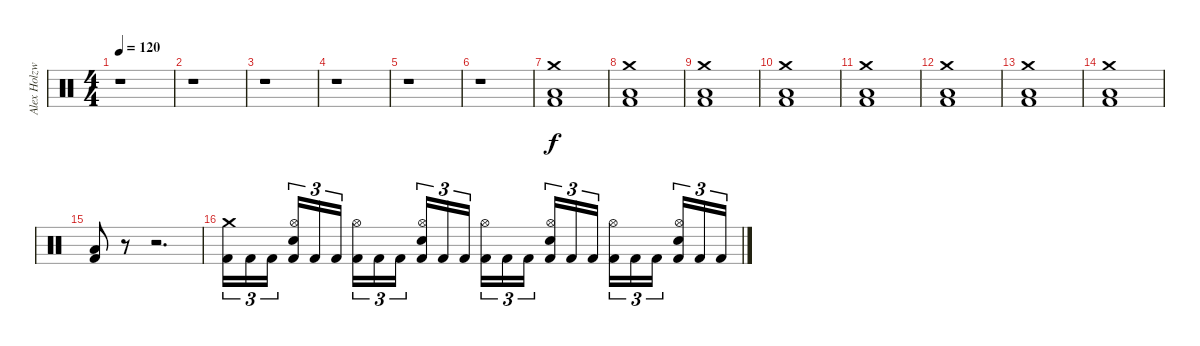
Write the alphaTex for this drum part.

\track ("Alex Holzwarth - Drums" "Alex Holzw") {instrument percussion}
\staff {score}
\articulation defaults
\ts (4 4)
\tempo 120
\clef neutral
\ks c
r.1{dy f} |
r.1 |
r.1 |
r.1 |
r.1 |
r.1 |
("Crash medium (hit)" "Low Floor Tom (hit)" "Kick (hit) 2").1 |
("Crash medium (hit)" "Low Floor Tom (hit)" "Kick (hit) 2").1 |
("Crash medium (hit)" "Low Floor Tom (hit)" "Kick (hit) 2").1 |
("Crash medium (hit)" "Low Floor Tom (hit)" "Kick (hit) 2").1 |
("Crash medium (hit)" "Low Floor Tom (hit)" "Kick (hit) 2").1 |
("Crash medium (hit)" "Low Floor Tom (hit)" "Kick (hit) 2").1 |
("Crash medium (hit)" "Low Floor Tom (hit)" "Kick (hit) 2").1 |
("Crash medium (hit)" "Low Floor Tom (hit)" "Kick (hit) 2").1 |
("Low Floor Tom (hit)" "Kick (hit) 2").8 r.8 r.2{d} |
("Crash medium (hit)" "Kick (hit) 2").16{tu (3 2)} "Kick (hit) 2".16{tu (3 2)} "Kick (hit) 2".16{tu (3 2)} ("Hi-Hat (open)" "Electric Snare (hit)" "Kick (hit) 2").16{tu (3 2)} "Kick (hit) 2".16{tu (3 2)} "Kick (hit) 2".16{tu (3 2)} ("Hi-Hat (open)" "Kick (hit) 2").16{tu (3 2)} "Kick (hit) 2".16{tu (3 2)} "Kick (hit) 2".16{tu (3 2)} ("Hi-Hat (open)" "Electric Snare (hit)" "Kick (hit) 2").16{tu (3 2)} "Kick (hit) 2".16{tu (3 2)} "Kick (hit) 2".16{tu (3 2)} ("Hi-Hat (open)" "Kick (hit) 2").16{tu (3 2)} "Kick (hit) 2".16{tu (3 2)} "Kick (hit) 2".16{tu (3 2)} ("Hi-Hat (open)" "Electric Snare (hit)" "Kick (hit) 2").16{tu (3 2)} "Kick (hit) 2".16{tu (3 2)} "Kick (hit) 2".16{tu (3 2)} ("Hi-Hat (open)" "Kick (hit) 2").16{tu (3 2)} "Kick (hit) 2".16{tu (3 2)} "Kick (hit) 2".16{tu (3 2)} ("Hi-Hat (open)" "Electric Snare (hit)" "Kick (hit) 2").16{tu (3 2)} "Kick (hit) 2".16{tu (3 2)} "Kick (hit) 2".16{tu (3 2)}
